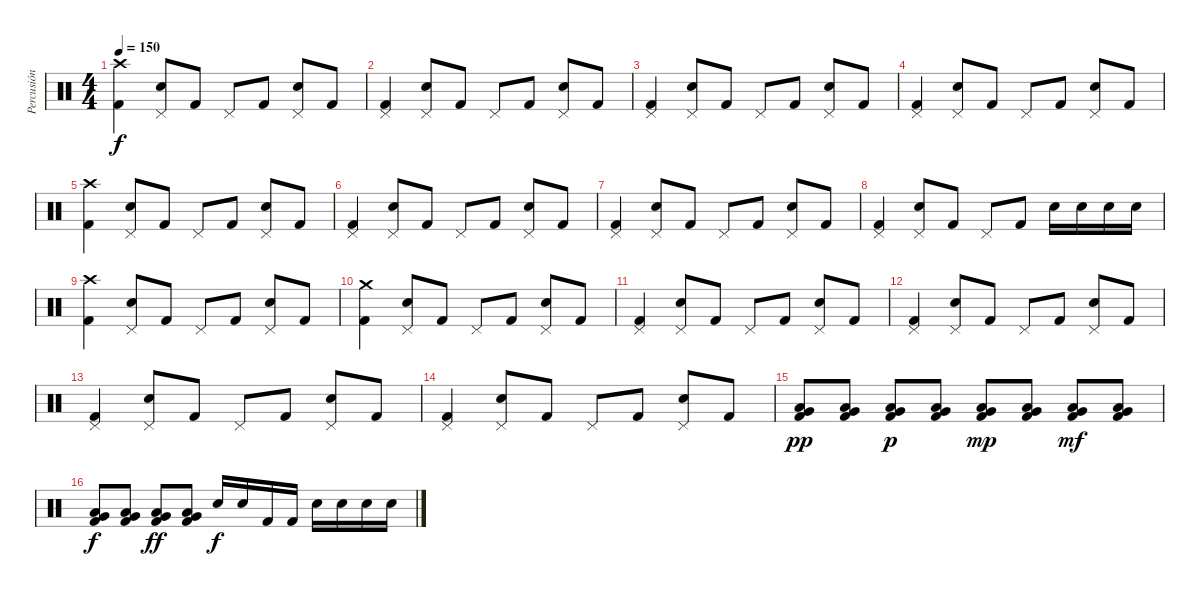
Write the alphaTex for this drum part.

\track ("Percusión" "Percusión") {instrument percussion}
\staff {score}
\articulation defaults
\ts (4 4)
\tempo 150
\clef neutral
\ks c
("Crash high (hit)" "Kick (hit) 2").4{dy f} ("Pedal Hi-Hat (hit)" "Electric Snare (hit)").8 "Kick (hit) 2".8 "Pedal Hi-Hat (hit)".8 "Kick (hit) 2".8 ("Pedal Hi-Hat (hit)" "Electric Snare (hit)").8 "Kick (hit) 2".8 |
("Pedal Hi-Hat (hit)" "Kick (hit) 2").4 ("Pedal Hi-Hat (hit)" "Electric Snare (hit)").8 "Kick (hit) 2".8 "Pedal Hi-Hat (hit)".8 "Kick (hit) 2".8 ("Pedal Hi-Hat (hit)" "Electric Snare (hit)").8 "Kick (hit) 2".8 |
("Pedal Hi-Hat (hit)" "Kick (hit) 2").4 ("Pedal Hi-Hat (hit)" "Electric Snare (hit)").8 "Kick (hit) 2".8 "Pedal Hi-Hat (hit)".8 "Kick (hit) 2".8 ("Pedal Hi-Hat (hit)" "Electric Snare (hit)").8 "Kick (hit) 2".8 |
("Pedal Hi-Hat (hit)" "Kick (hit) 2").4 ("Pedal Hi-Hat (hit)" "Electric Snare (hit)").8 "Kick (hit) 2".8 "Pedal Hi-Hat (hit)".8 "Kick (hit) 2".8 ("Pedal Hi-Hat (hit)" "Electric Snare (hit)").8 "Kick (hit) 2".8 |
("Crash high (hit)" "Kick (hit) 2").4 ("Pedal Hi-Hat (hit)" "Electric Snare (hit)").8 "Kick (hit) 2".8 "Pedal Hi-Hat (hit)".8 "Kick (hit) 2".8 ("Pedal Hi-Hat (hit)" "Electric Snare (hit)").8 "Kick (hit) 2".8 |
("Pedal Hi-Hat (hit)" "Kick (hit) 2").4 ("Pedal Hi-Hat (hit)" "Electric Snare (hit)").8 "Kick (hit) 2".8 "Pedal Hi-Hat (hit)".8 "Kick (hit) 2".8 ("Pedal Hi-Hat (hit)" "Electric Snare (hit)").8 "Kick (hit) 2".8 |
("Pedal Hi-Hat (hit)" "Kick (hit) 2").4 ("Pedal Hi-Hat (hit)" "Electric Snare (hit)").8 "Kick (hit) 2".8 "Pedal Hi-Hat (hit)".8 "Kick (hit) 2".8 ("Pedal Hi-Hat (hit)" "Electric Snare (hit)").8 "Kick (hit) 2".8 |
("Pedal Hi-Hat (hit)" "Kick (hit) 2").4 ("Pedal Hi-Hat (hit)" "Electric Snare (hit)").8 "Kick (hit) 2".8 "Pedal Hi-Hat (hit)".8 "Kick (hit) 2".8 "Electric Snare (hit)".16 "Electric Snare (hit)".16 "Electric Snare (hit)".16 "Electric Snare (hit)".16 |
("Crash high (hit)" "Kick (hit) 2").4 ("Pedal Hi-Hat (hit)" "Electric Snare (hit)").8 "Kick (hit) 2".8 "Pedal Hi-Hat (hit)".8 "Kick (hit) 2".8 ("Pedal Hi-Hat (hit)" "Electric Snare (hit)").8 "Kick (hit) 2".8 |
("Crash medium (hit)" "Kick (hit) 2").4 ("Pedal Hi-Hat (hit)" "Electric Snare (hit)").8 "Kick (hit) 2".8 "Pedal Hi-Hat (hit)".8 "Kick (hit) 2".8 ("Pedal Hi-Hat (hit)" "Electric Snare (hit)").8 "Kick (hit) 2".8 |
("Pedal Hi-Hat (hit)" "Kick (hit) 2").4 ("Pedal Hi-Hat (hit)" "Electric Snare (hit)").8 "Kick (hit) 2".8 "Pedal Hi-Hat (hit)".8 "Kick (hit) 2".8 ("Pedal Hi-Hat (hit)" "Electric Snare (hit)").8 "Kick (hit) 2".8 |
("Pedal Hi-Hat (hit)" "Kick (hit) 2").4 ("Pedal Hi-Hat (hit)" "Electric Snare (hit)").8 "Kick (hit) 2".8 "Pedal Hi-Hat (hit)".8 "Kick (hit) 2".8 ("Pedal Hi-Hat (hit)" "Electric Snare (hit)").8 "Kick (hit) 2".8 |
("Pedal Hi-Hat (hit)" "Kick (hit) 2").4 ("Pedal Hi-Hat (hit)" "Electric Snare (hit)").8 "Kick (hit) 2".8 "Pedal Hi-Hat (hit)".8 "Kick (hit) 2".8 ("Pedal Hi-Hat (hit)" "Electric Snare (hit)").8 "Kick (hit) 2".8 |
("Pedal Hi-Hat (hit)" "Kick (hit) 2").4 ("Pedal Hi-Hat (hit)" "Electric Snare (hit)").8 "Kick (hit) 2".8 "Pedal Hi-Hat (hit)".8 "Kick (hit) 2".8 ("Pedal Hi-Hat (hit)" "Electric Snare (hit)").8 "Kick (hit) 2".8 |
("Very Low Tom (hit)" "Low Tom (hit)" "Kick (hit) 2").8{dy pp} ("Very Low Tom (hit)" "Low Tom (hit)" "Kick (hit) 2").8 ("Very Low Tom (hit)" "Low Tom (hit)" "Kick (hit) 2").8{dy p} ("Very Low Tom (hit)" "Low Tom (hit)" "Kick (hit) 2").8 ("Very Low Tom (hit)" "Low Tom (hit)" "Kick (hit) 2").8{dy mp} ("Very Low Tom (hit)" "Low Tom (hit)" "Kick (hit) 2").8 ("Very Low Tom (hit)" "Low Tom (hit)" "Kick (hit) 2").8{dy mf} ("Very Low Tom (hit)" "Low Tom (hit)" "Kick (hit) 2").8 |
("Very Low Tom (hit)" "Low Tom (hit)" "Kick (hit) 2").8{dy f} ("Very Low Tom (hit)" "Low Tom (hit)" "Kick (hit) 2").8 ("Very Low Tom (hit)" "Low Tom (hit)" "Kick (hit) 2").8{dy ff} ("Very Low Tom (hit)" "Low Tom (hit)" "Kick (hit) 2").8 "Electric Snare (hit)".16{dy f} "Electric Snare (hit)".16 "Kick (hit) 2".16 "Kick (hit) 2".16 "Electric Snare (hit)".16 "Electric Snare (hit)".16 "Electric Snare (hit)".16 "Electric Snare (hit)".16
